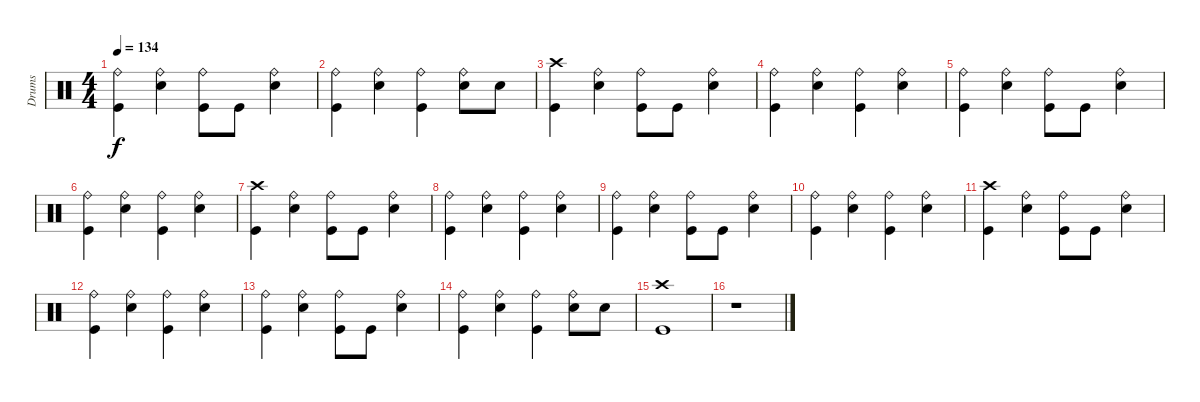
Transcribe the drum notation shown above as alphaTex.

\track ("Drums" "Drums") {instrument percussion}
\staff {score}
\articulation defaults
\ts (4 4)
\tempo 134
\clef neutral
\ks c
("Ride (bell)" "Kick (hit)").4{dy f} ("Ride (bell)" "Snare (hit) 2").4 ("Ride (bell)" "Kick (hit)").8 "Kick (hit)".8 ("Ride (bell)" "Snare (hit) 2").4 |
("Ride (bell)" "Kick (hit)").4 ("Ride (bell)" "Snare (hit) 2").4 ("Ride (bell)" "Kick (hit)").4 ("Ride (bell)" "Snare (hit) 2").8 "Snare (hit) 2".8 |
("Crash high (hit)" "Kick (hit)").4 ("Ride (bell)" "Snare (hit) 2").4 ("Ride (bell)" "Kick (hit)").8 "Kick (hit)".8 ("Ride (bell)" "Snare (hit) 2").4 |
("Ride (bell)" "Kick (hit)").4 ("Ride (bell)" "Snare (hit) 2").4 ("Ride (bell)" "Kick (hit)").4 ("Ride (bell)" "Snare (hit) 2").4 |
("Ride (bell)" "Kick (hit)").4 ("Ride (bell)" "Snare (hit) 2").4 ("Ride (bell)" "Kick (hit)").8 "Kick (hit)".8 ("Ride (bell)" "Snare (hit) 2").4 |
("Ride (bell)" "Kick (hit)").4 ("Ride (bell)" "Snare (hit) 2").4 ("Ride (bell)" "Kick (hit)").4 ("Ride (bell)" "Snare (hit) 2").4 |
("Crash high (hit)" "Kick (hit)").4 ("Ride (bell)" "Snare (hit) 2").4 ("Ride (bell)" "Kick (hit)").8 "Kick (hit)".8 ("Ride (bell)" "Snare (hit) 2").4 |
("Ride (bell)" "Kick (hit)").4 ("Ride (bell)" "Snare (hit) 2").4 ("Ride (bell)" "Kick (hit)").4 ("Ride (bell)" "Snare (hit) 2").4 |
("Ride (bell)" "Kick (hit)").4 ("Ride (bell)" "Snare (hit) 2").4 ("Ride (bell)" "Kick (hit)").8 "Kick (hit)".8 ("Ride (bell)" "Snare (hit) 2").4 |
("Ride (bell)" "Kick (hit)").4 ("Ride (bell)" "Snare (hit) 2").4 ("Ride (bell)" "Kick (hit)").4 ("Ride (bell)" "Snare (hit) 2").4 |
("Crash high (hit)" "Kick (hit)").4 ("Ride (bell)" "Snare (hit) 2").4 ("Ride (bell)" "Kick (hit)").8 "Kick (hit)".8 ("Ride (bell)" "Snare (hit) 2").4 |
("Ride (bell)" "Kick (hit)").4 ("Ride (bell)" "Snare (hit) 2").4 ("Ride (bell)" "Kick (hit)").4 ("Ride (bell)" "Snare (hit) 2").4 |
("Ride (bell)" "Kick (hit)").4 ("Ride (bell)" "Snare (hit) 2").4 ("Ride (bell)" "Kick (hit)").8 "Kick (hit)".8 ("Ride (bell)" "Snare (hit) 2").4 |
("Ride (bell)" "Kick (hit)").4 ("Ride (bell)" "Snare (hit) 2").4 ("Ride (bell)" "Kick (hit)").4 ("Ride (bell)" "Snare (hit) 2").8 "Snare (hit) 2".8 |
("Crash high (hit)" "Kick (hit)").1 |
r.1
